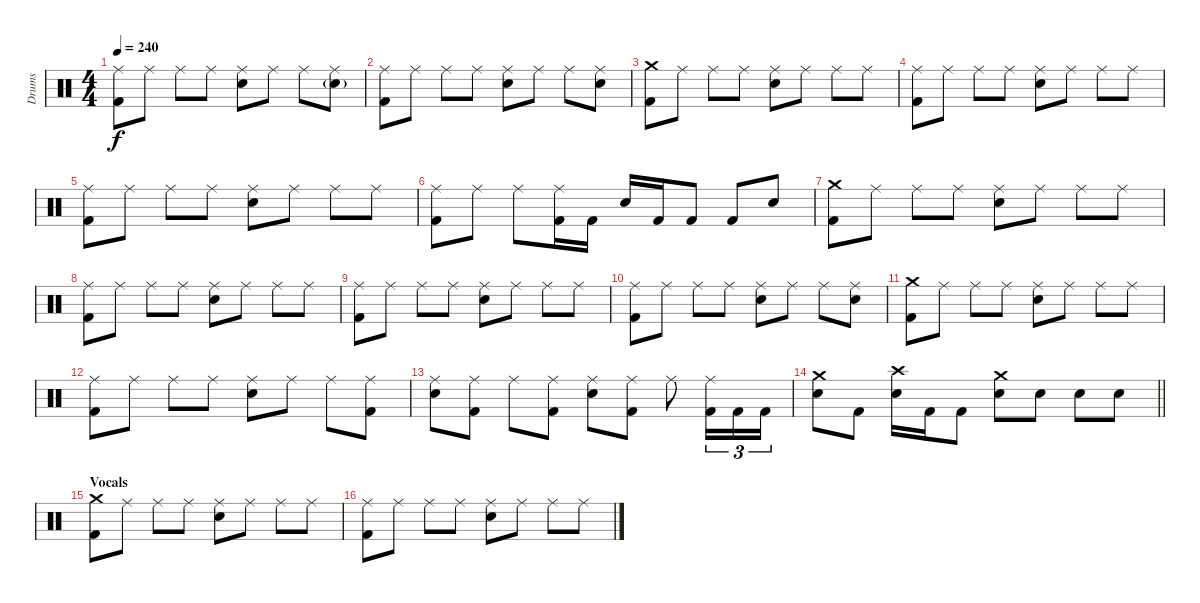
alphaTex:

\track ("Drums" "Drums") {instrument percussion}
\staff {score}
\articulation defaults
\ts (4 4)
\tempo 240
\clef neutral
\ks c
("Ride (middle)" "Kick (hit) 2").8{dy f} "Ride (middle)".8 "Ride (middle)".8 "Ride (middle)".8 ("Ride (middle)" "Electric Snare (hit)").8 "Ride (middle)".8 "Ride (middle)".8 ("Ride (middle)" "Electric Snare (hit)"{g}).8 |
("Ride (middle)" "Kick (hit) 2").8 "Ride (middle)".8 "Ride (middle)".8 "Ride (middle)".8 ("Ride (middle)" "Electric Snare (hit)").8 "Ride (middle)".8 "Ride (middle)".8 ("Ride (middle)" "Electric Snare (hit)").8 |
("Crash medium (hit)" "Kick (hit) 2").8 "Ride (middle)".8 "Ride (middle)".8 "Ride (middle)".8 ("Ride (middle)" "Electric Snare (hit)").8 "Ride (middle)".8 "Ride (middle)".8 "Ride (middle)".8 |
("Ride (middle)" "Kick (hit) 2").8 "Ride (middle)".8 "Ride (middle)".8 "Ride (middle)".8 ("Ride (middle)" "Electric Snare (hit)").8 "Ride (middle)".8 "Ride (middle)".8 "Ride (middle)".8 |
("Ride (middle)" "Kick (hit) 2").8 "Ride (middle)".8 "Ride (middle)".8 "Ride (middle)".8 ("Ride (middle)" "Electric Snare (hit)").8 "Ride (middle)".8 "Ride (middle)".8 "Ride (middle)".8 |
("Ride (middle)" "Kick (hit) 2").8 "Ride (middle)".8 "Ride (middle)".8 ("Ride (middle)" "Kick (hit) 2").16 "Kick (hit) 2".16 "Electric Snare (hit)".16 "Kick (hit) 2".16 "Kick (hit) 2".8 "Kick (hit) 2".8 "Electric Snare (hit)".8 |
("Crash medium (hit)" "Kick (hit) 2").8 "Ride (middle)".8 "Ride (middle)".8 "Ride (middle)".8 ("Ride (middle)" "Electric Snare (hit)").8 "Ride (middle)".8 "Ride (middle)".8 "Ride (middle)".8 |
("Ride (middle)" "Kick (hit) 2").8 "Ride (middle)".8 "Ride (middle)".8 "Ride (middle)".8 ("Ride (middle)" "Electric Snare (hit)").8 "Ride (middle)".8 "Ride (middle)".8 "Ride (middle)".8 |
("Ride (middle)" "Kick (hit) 2").8 "Ride (middle)".8 "Ride (middle)".8 "Ride (middle)".8 ("Ride (middle)" "Electric Snare (hit)").8 "Ride (middle)".8 "Ride (middle)".8 "Ride (middle)".8 |
("Ride (middle)" "Kick (hit) 2").8 "Ride (middle)".8 "Ride (middle)".8 "Ride (middle)".8 ("Ride (middle)" "Electric Snare (hit)").8 "Ride (middle)".8 "Ride (middle)".8 ("Ride (middle)" "Electric Snare (hit)").8 |
("Crash medium (hit)" "Kick (hit) 2").8 "Ride (middle)".8 "Ride (middle)".8 "Ride (middle)".8 ("Ride (middle)" "Electric Snare (hit)").8 "Ride (middle)".8 "Ride (middle)".8 "Ride (middle)".8 |
("Ride (middle)" "Kick (hit) 2").8 "Ride (middle)".8 "Ride (middle)".8 "Ride (middle)".8 ("Ride (middle)" "Electric Snare (hit)").8 "Ride (middle)".8 "Ride (middle)".8 ("Ride (middle)" "Kick (hit) 2").8 |
("Ride (middle)" "Electric Snare (hit)").8 ("Ride (middle)" "Kick (hit) 2").8 "Ride (middle)".8 ("Ride (middle)" "Kick (hit) 2").8 ("Ride (middle)" "Electric Snare (hit)").8 ("Ride (middle)" "Kick (hit) 2").8 "Ride (middle)".8 ("Ride (middle)" "Kick (hit) 2").16{tu (3 2)} "Kick (hit) 2".16{tu (3 2)} "Kick (hit) 2".16{tu (3 2)} |
\barLineRight lightlight
("Crash medium (hit)" "Electric Snare (hit)").8 "Kick (hit) 2".8 ("Crash high (hit)" "Electric Snare (hit)").16 "Kick (hit) 2".16 "Kick (hit) 2".8 ("Crash medium (hit)" "Electric Snare (hit)").8 "Electric Snare (hit)".8 "Electric Snare (hit)".8 "Electric Snare (hit)".8 |
\section ("" "Vocals")
("Crash medium (hit)" "Kick (hit) 2").8 "Ride (middle)".8 "Ride (middle)".8 "Ride (middle)".8 ("Ride (middle)" "Electric Snare (hit)").8 "Ride (middle)".8 "Ride (middle)".8 "Ride (middle)".8 |
("Ride (middle)" "Kick (hit) 2").8 "Ride (middle)".8 "Ride (middle)".8 "Ride (middle)".8 ("Ride (middle)" "Electric Snare (hit)").8 "Ride (middle)".8 "Ride (middle)".8 "Ride (middle)".8
